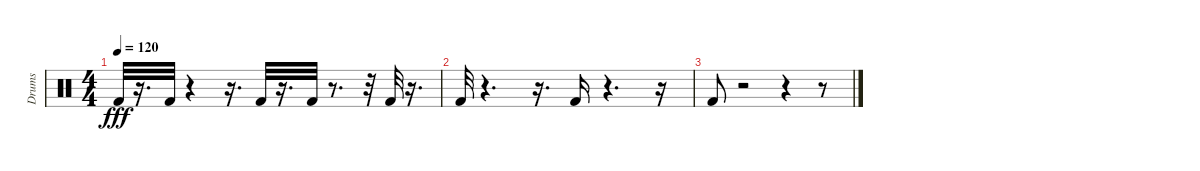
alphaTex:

\track ("Drums" "Drums") {instrument percussion}
\staff {score}
\articulation defaults
\ts (4 4)
\tempo 120
\clef neutral
\ks c "Kick (hit) 2".32{dy fff}
r.16{d} "Kick (hit) 2".32 r.4 r.16{d} "Kick (hit) 2".32 r.16{d} "Kick (hit) 2".32 r.8{d} r.32 "Kick (hit) 2".32 r.16{d} |
"Kick (hit) 2".32 r.4{d} r.16{d} "Kick (hit) 2".16 r.4{d} r.16 |
"Kick (hit) 2".8 r.2 r.4 r.8
